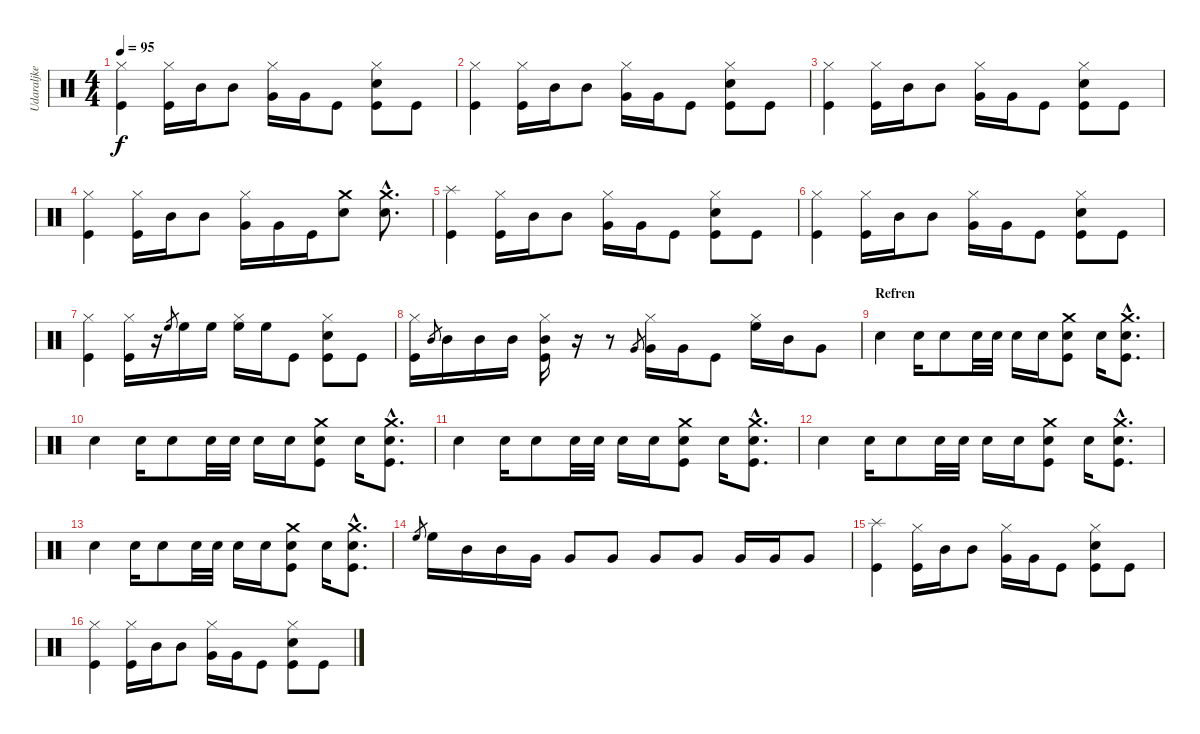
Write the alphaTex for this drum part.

\track ("Udaraljke" "Udaraljke") {instrument percussion}
\staff {score}
\articulation defaults
\ts (4 4)
\tempo 95
\clef neutral
\ks c
("Hi-Hat (closed)" "Kick (hit)").4{dy f} ("Hi-Hat (closed)" "Kick (hit)").16 "Mid Tom (hit)".16 "Mid Tom (hit)".8 ("Hi-Hat (closed)" "Very Low Tom (hit)").16 "Very Low Tom (hit)".16 "Kick (hit)".8 ("Hi-Hat (closed)" "Snare (hit) 2" "Kick (hit)").8 "Kick (hit)".8 |
("Hi-Hat (closed)" "Kick (hit)").4 ("Hi-Hat (closed)" "Kick (hit)").16 "Mid Tom (hit)".16 "Mid Tom (hit)".8 ("Hi-Hat (closed)" "Very Low Tom (hit)").16 "Very Low Tom (hit)".16 "Kick (hit)".8 ("Hi-Hat (closed)" "Snare (hit) 2" "Kick (hit)").8 "Kick (hit)".8 |
("Hi-Hat (closed)" "Kick (hit)").4 ("Hi-Hat (closed)" "Kick (hit)").16 "Mid Tom (hit)".16 "Mid Tom (hit)".8 ("Hi-Hat (closed)" "Very Low Tom (hit)").16 "Very Low Tom (hit)".16 "Kick (hit)".8 ("Hi-Hat (closed)" "Snare (hit) 2" "Kick (hit)").8 "Kick (hit)".8 |
("Hi-Hat (closed)" "Kick (hit)").4 ("Hi-Hat (closed)" "Kick (hit)").16 "Mid Tom (hit)".16 "Mid Tom (hit)".8 ("Hi-Hat (closed)" "Very Low Tom (hit)").16 "Very Low Tom (hit)".16 "Kick (hit)".16 ("Crash medium (hit)" "Snare (hit) 2").8 ("Crash medium (hit)"{hac} "Snare (hit) 2"{hac}).8{d} |
("Splash (hit)" "Kick (hit)").4 ("Hi-Hat (closed)" "Kick (hit)").16 "Mid Tom (hit)".16 "Mid Tom (hit)".8 ("Hi-Hat (closed)" "Very Low Tom (hit)").16 "Very Low Tom (hit)".16 "Kick (hit)".8 ("Hi-Hat (closed)" "Snare (hit) 2" "Kick (hit)").8 "Kick (hit)".8 |
("Hi-Hat (closed)" "Kick (hit)").4 ("Hi-Hat (closed)" "Kick (hit)").16 "Mid Tom (hit)".16 "Mid Tom (hit)".8 ("Hi-Hat (closed)" "Very Low Tom (hit)").16 "Very Low Tom (hit)".16 "Kick (hit)".8 ("Hi-Hat (closed)" "Snare (hit) 2" "Kick (hit)").8 "Kick (hit)".8 |
("Hi-Hat (closed)" "Kick (hit)").4 ("Hi-Hat (closed)" "Kick (hit)").16 r.16 "High Floor Tom (hit)".8{gr} "High Floor Tom (hit)".16 "High Floor Tom (hit)".16 ("Hi-Hat (closed)" "High Floor Tom (hit)").16 "High Floor Tom (hit)".16 "Kick (hit)".8 ("Hi-Hat (closed)" "Snare (hit) 2" "Kick (hit)").8 "Kick (hit)".8 |
("Hi-Hat (closed)" "Kick (hit)").16 "Mid Tom (hit)".8{gr} "Mid Tom (hit)".16 "Mid Tom (hit)".16 "Mid Tom (hit)".16 ("Hi-Hat (closed)" "Mid Tom (hit)" "Kick (hit)").16 r.16 r.8 "Very Low Tom (hit)".8{gr} ("Hi-Hat (closed)" "Very Low Tom (hit)").16 "Very Low Tom (hit)".16 "Kick (hit)".8 ("Hi-Hat (closed)" "High Floor Tom (hit)").16 "Mid Tom (hit)".16 "Very Low Tom (hit)".8 |
\section ("" "Refren")
"Snare (hit) 2".4 "Snare (hit) 2".16 "Snare (hit) 2".8 "Snare (hit) 2".32 "Snare (hit) 2".32 "Snare (hit) 2".16 "Snare (hit) 2".16 ("Crash medium (hit)" "Snare (hit) 2" "Kick (hit)").8 "Snare (hit) 2".16 ("Crash medium (hit)"{hac} "Snare (hit) 2"{hac} "Kick (hit)"{hac}).8{d} |
"Snare (hit) 2".4 "Snare (hit) 2".16 "Snare (hit) 2".8 "Snare (hit) 2".32 "Snare (hit) 2".32 "Snare (hit) 2".16 "Snare (hit) 2".16 ("Crash medium (hit)" "Snare (hit) 2" "Kick (hit)").8 "Snare (hit) 2".16 ("Crash medium (hit)"{hac} "Snare (hit) 2"{hac} "Kick (hit)"{hac}).8{d} |
"Snare (hit) 2".4 "Snare (hit) 2".16 "Snare (hit) 2".8 "Snare (hit) 2".32 "Snare (hit) 2".32 "Snare (hit) 2".16 "Snare (hit) 2".16 ("Crash medium (hit)" "Snare (hit) 2" "Kick (hit)").8 "Snare (hit) 2".16 ("Crash medium (hit)"{hac} "Snare (hit) 2"{hac} "Kick (hit)"{hac}).8{d} |
"Snare (hit) 2".4 "Snare (hit) 2".16 "Snare (hit) 2".8 "Snare (hit) 2".32 "Snare (hit) 2".32 "Snare (hit) 2".16 "Snare (hit) 2".16 ("Crash medium (hit)" "Snare (hit) 2" "Kick (hit)").8 "Snare (hit) 2".16 ("Crash medium (hit)"{hac} "Snare (hit) 2"{hac} "Kick (hit)"{hac}).8{d} |
"Snare (hit) 2".4 "Snare (hit) 2".16 "Snare (hit) 2".8 "Snare (hit) 2".32 "Snare (hit) 2".32 "Snare (hit) 2".16 "Snare (hit) 2".16 ("Crash medium (hit)" "Snare (hit) 2" "Kick (hit)").8 "Snare (hit) 2".16 ("Crash medium (hit)"{hac} "Snare (hit) 2"{hac} "Kick (hit)"{hac}).8{d} |
"High Floor Tom (hit)".8{gr} "High Floor Tom (hit)".16 "Mid Tom (hit)".16 "Mid Tom (hit)".16 "Very Low Tom (hit)".16 "Very Low Tom (hit)".8 "Very Low Tom (hit)".8 "Very Low Tom (hit)".8 "Very Low Tom (hit)".8 "Very Low Tom (hit)".16 "Very Low Tom (hit)".16 "Very Low Tom (hit)".8 |
("Splash (hit)" "Kick (hit)").4 ("Hi-Hat (closed)" "Kick (hit)").16 "Mid Tom (hit)".16 "Mid Tom (hit)".8 ("Hi-Hat (closed)" "Very Low Tom (hit)").16 "Very Low Tom (hit)".16 "Kick (hit)".8 ("Hi-Hat (closed)" "Snare (hit) 2" "Kick (hit)").8 "Kick (hit)".8 |
("Hi-Hat (closed)" "Kick (hit)").4 ("Hi-Hat (closed)" "Kick (hit)").16 "Mid Tom (hit)".16 "Mid Tom (hit)".8 ("Hi-Hat (closed)" "Very Low Tom (hit)").16 "Very Low Tom (hit)".16 "Kick (hit)".8 ("Hi-Hat (closed)" "Snare (hit) 2" "Kick (hit)").8 "Kick (hit)".8
